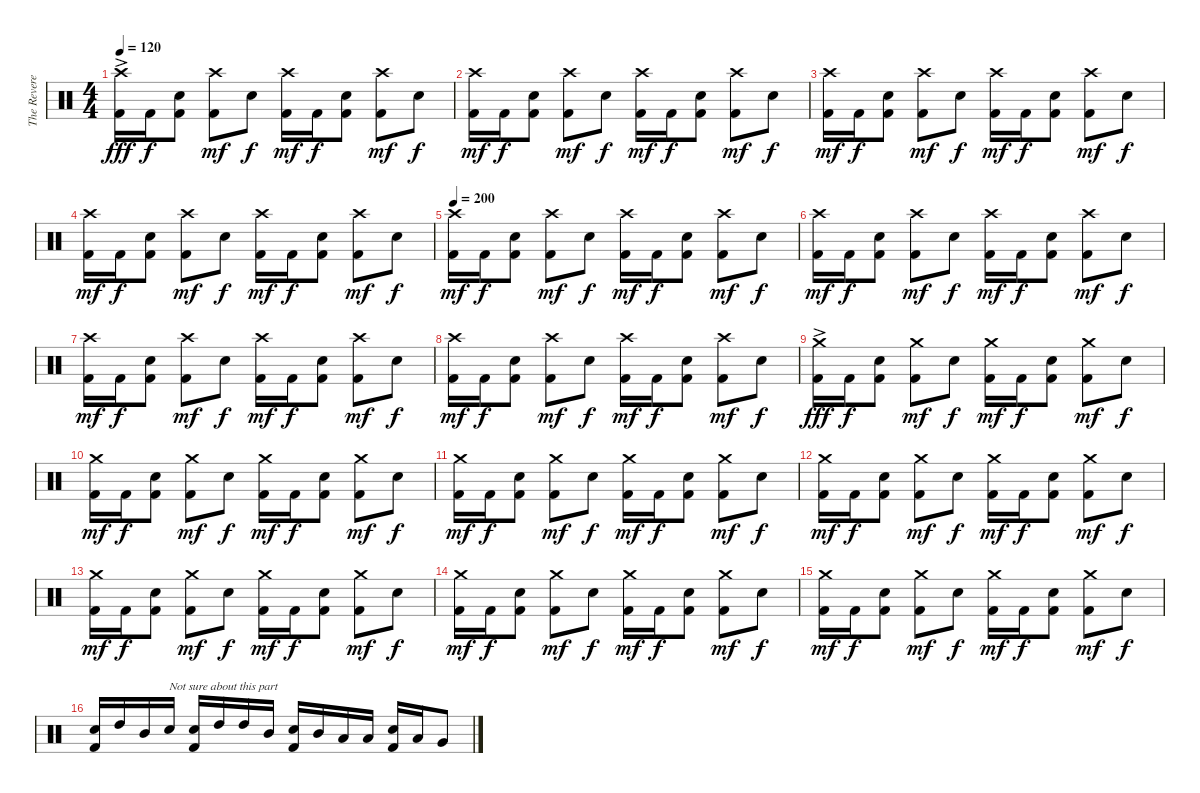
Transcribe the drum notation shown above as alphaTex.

\track ("The Reverend" "The Revere") {instrument percussion}
\staff {score}
\articulation defaults
\ts (4 4)
\tempo 120
\tempo 200
\tempo 120
\clef neutral
\ks c
("Crash high (hit)"{ac} "Kick (hit) 2").16{dy fff} "Kick (hit) 2".16{dy f} ("Electric Snare (hit)" "Kick (hit) 2").8 ("Crash high (hit)" "Kick (hit) 2").8{dy mf} "Electric Snare (hit)".8{dy f} ("Crash high (hit)" "Kick (hit) 2").16{dy mf} "Kick (hit) 2".16{dy f} ("Electric Snare (hit)" "Kick (hit) 2").8 ("Crash high (hit)" "Kick (hit) 2").8{dy mf} "Electric Snare (hit)".8{dy f} |
("Crash high (hit)" "Kick (hit) 2").16{dy mf} "Kick (hit) 2".16{dy f} ("Electric Snare (hit)" "Kick (hit) 2").8 ("Crash high (hit)" "Kick (hit) 2").8{dy mf} "Electric Snare (hit)".8{dy f} ("Crash high (hit)" "Kick (hit) 2").16{dy mf} "Kick (hit) 2".16{dy f} ("Electric Snare (hit)" "Kick (hit) 2").8 ("Crash high (hit)" "Kick (hit) 2").8{dy mf} "Electric Snare (hit)".8{dy f} |
("Crash high (hit)" "Kick (hit) 2").16{dy mf} "Kick (hit) 2".16{dy f} ("Electric Snare (hit)" "Kick (hit) 2").8 ("Crash high (hit)" "Kick (hit) 2").8{dy mf} "Electric Snare (hit)".8{dy f} ("Crash high (hit)" "Kick (hit) 2").16{dy mf} "Kick (hit) 2".16{dy f} ("Electric Snare (hit)" "Kick (hit) 2").8 ("Crash high (hit)" "Kick (hit) 2").8{dy mf} "Electric Snare (hit)".8{dy f} |
("Crash high (hit)" "Kick (hit) 2").16{dy mf} "Kick (hit) 2".16{dy f} ("Electric Snare (hit)" "Kick (hit) 2").8 ("Crash high (hit)" "Kick (hit) 2").8{dy mf} "Electric Snare (hit)".8{dy f} ("Crash high (hit)" "Kick (hit) 2").16{dy mf} "Kick (hit) 2".16{dy f} ("Electric Snare (hit)" "Kick (hit) 2").8 ("Crash high (hit)" "Kick (hit) 2").8{dy mf} "Electric Snare (hit)".8{dy f} |
\tempo 200
("Crash high (hit)" "Kick (hit) 2").16{dy mf} "Kick (hit) 2".16{dy f} ("Electric Snare (hit)" "Kick (hit) 2").8 ("Crash high (hit)" "Kick (hit) 2").8{dy mf} "Electric Snare (hit)".8{dy f} ("Crash high (hit)" "Kick (hit) 2").16{dy mf} "Kick (hit) 2".16{dy f} ("Electric Snare (hit)" "Kick (hit) 2").8 ("Crash high (hit)" "Kick (hit) 2").8{dy mf} "Electric Snare (hit)".8{dy f} |
("Crash high (hit)" "Kick (hit) 2").16{dy mf} "Kick (hit) 2".16{dy f} ("Electric Snare (hit)" "Kick (hit) 2").8 ("Crash high (hit)" "Kick (hit) 2").8{dy mf} "Electric Snare (hit)".8{dy f} ("Crash high (hit)" "Kick (hit) 2").16{dy mf} "Kick (hit) 2".16{dy f} ("Electric Snare (hit)" "Kick (hit) 2").8 ("Crash high (hit)" "Kick (hit) 2").8{dy mf} "Electric Snare (hit)".8{dy f} |
("Crash high (hit)" "Kick (hit) 2").16{dy mf} "Kick (hit) 2".16{dy f} ("Electric Snare (hit)" "Kick (hit) 2").8 ("Crash high (hit)" "Kick (hit) 2").8{dy mf} "Electric Snare (hit)".8{dy f} ("Crash high (hit)" "Kick (hit) 2").16{dy mf} "Kick (hit) 2".16{dy f} ("Electric Snare (hit)" "Kick (hit) 2").8 ("Crash high (hit)" "Kick (hit) 2").8{dy mf} "Electric Snare (hit)".8{dy f} |
("Crash high (hit)" "Kick (hit) 2").16{dy mf} "Kick (hit) 2".16{dy f} ("Electric Snare (hit)" "Kick (hit) 2").8 ("Crash high (hit)" "Kick (hit) 2").8{dy mf} "Electric Snare (hit)".8{dy f} ("Crash high (hit)" "Kick (hit) 2").16{dy mf} "Kick (hit) 2".16{dy f} ("Electric Snare (hit)" "Kick (hit) 2").8 ("Crash high (hit)" "Kick (hit) 2").8{dy mf} "Electric Snare (hit)".8{dy f} |
("Crash medium (hit)"{ac} "Kick (hit) 2").16{dy fff} "Kick (hit) 2".16{dy f} ("Electric Snare (hit)" "Kick (hit) 2").8 ("Crash medium (hit)" "Kick (hit) 2").8{dy mf} "Electric Snare (hit)".8{dy f} ("Crash medium (hit)" "Kick (hit) 2").16{dy mf} "Kick (hit) 2".16{dy f} ("Electric Snare (hit)" "Kick (hit) 2").8 ("Crash medium (hit)" "Kick (hit) 2").8{dy mf} "Electric Snare (hit)".8{dy f} |
("Crash medium (hit)" "Kick (hit) 2").16{dy mf} "Kick (hit) 2".16{dy f} ("Electric Snare (hit)" "Kick (hit) 2").8 ("Crash medium (hit)" "Kick (hit) 2").8{dy mf} "Electric Snare (hit)".8{dy f} ("Crash medium (hit)" "Kick (hit) 2").16{dy mf} "Kick (hit) 2".16{dy f} ("Electric Snare (hit)" "Kick (hit) 2").8 ("Crash medium (hit)" "Kick (hit) 2").8{dy mf} "Electric Snare (hit)".8{dy f} |
("Crash medium (hit)" "Kick (hit) 2").16{dy mf} "Kick (hit) 2".16{dy f} ("Electric Snare (hit)" "Kick (hit) 2").8 ("Crash medium (hit)" "Kick (hit) 2").8{dy mf} "Electric Snare (hit)".8{dy f} ("Crash medium (hit)" "Kick (hit) 2").16{dy mf} "Kick (hit) 2".16{dy f} ("Electric Snare (hit)" "Kick (hit) 2").8 ("Crash medium (hit)" "Kick (hit) 2").8{dy mf} "Electric Snare (hit)".8{dy f} |
("Crash medium (hit)" "Kick (hit) 2").16{dy mf} "Kick (hit) 2".16{dy f} ("Electric Snare (hit)" "Kick (hit) 2").8 ("Crash medium (hit)" "Kick (hit) 2").8{dy mf} "Electric Snare (hit)".8{dy f} ("Crash medium (hit)" "Kick (hit) 2").16{dy mf} "Kick (hit) 2".16{dy f} ("Electric Snare (hit)" "Kick (hit) 2").8 ("Crash medium (hit)" "Kick (hit) 2").8{dy mf} "Electric Snare (hit)".8{dy f} |
("Crash medium (hit)" "Kick (hit) 2").16{dy mf} "Kick (hit) 2".16{dy f} ("Electric Snare (hit)" "Kick (hit) 2").8 ("Crash medium (hit)" "Kick (hit) 2").8{dy mf} "Electric Snare (hit)".8{dy f} ("Crash medium (hit)" "Kick (hit) 2").16{dy mf} "Kick (hit) 2".16{dy f} ("Electric Snare (hit)" "Kick (hit) 2").8 ("Crash medium (hit)" "Kick (hit) 2").8{dy mf} "Electric Snare (hit)".8{dy f} |
("Crash medium (hit)" "Kick (hit) 2").16{dy mf} "Kick (hit) 2".16{dy f} ("Electric Snare (hit)" "Kick (hit) 2").8 ("Crash medium (hit)" "Kick (hit) 2").8{dy mf} "Electric Snare (hit)".8{dy f} ("Crash medium (hit)" "Kick (hit) 2").16{dy mf} "Kick (hit) 2".16{dy f} ("Electric Snare (hit)" "Kick (hit) 2").8 ("Crash medium (hit)" "Kick (hit) 2").8{dy mf} "Electric Snare (hit)".8{dy f} |
("Crash medium (hit)" "Kick (hit) 2").16{dy mf} "Kick (hit) 2".16{dy f} ("Electric Snare (hit)" "Kick (hit) 2").8 ("Crash medium (hit)" "Kick (hit) 2").8{dy mf} "Electric Snare (hit)".8{dy f} ("Crash medium (hit)" "Kick (hit) 2").16{dy mf} "Kick (hit) 2".16{dy f} ("Electric Snare (hit)" "Kick (hit) 2").8 ("Crash medium (hit)" "Kick (hit) 2").8{dy mf} "Electric Snare (hit)".8{dy f} |
("Electric Snare (hit)" "Kick (hit) 2").16 "High Tom (hit)".16 "Mid Tom (hit)".16 "Electric Snare (hit)".16{txt "Not sure about this part"} ("Electric Snare (hit)" "Kick (hit) 2").16 "High Tom (hit)".16 "High Tom (hit)".16 "Mid Tom (hit)".16 ("Electric Snare (hit)" "Kick (hit) 2").16 "Mid Tom (hit)".16 "Low Tom (hit)".16 "Low Tom (hit)".16 ("Electric Snare (hit)" "Kick (hit) 2").16 "Low Tom (hit)".16 "Very Low Tom (hit)".8
